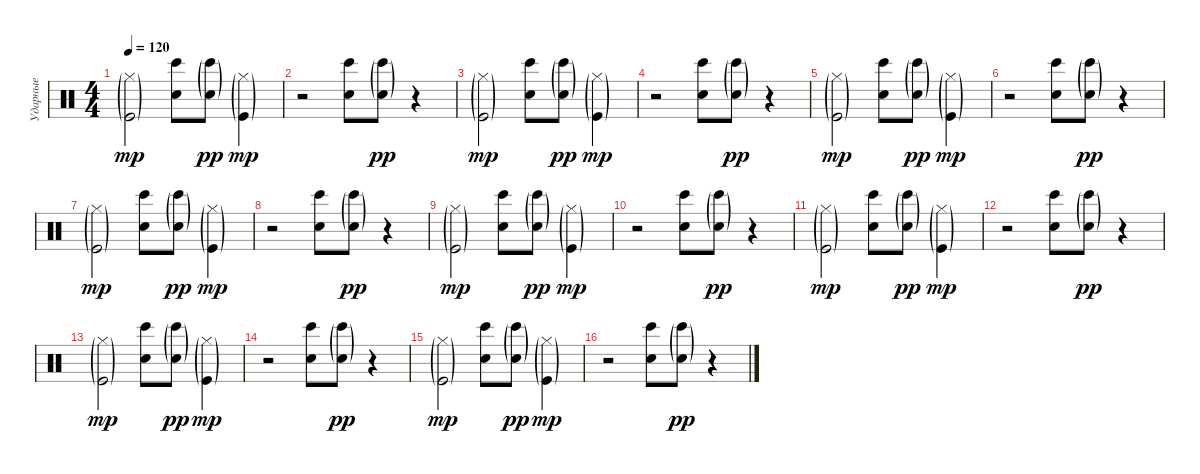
\track ("Ударные" "Ударные") {instrument percussion}
\staff {score}
\articulation defaults
\ts (4 4)
\tempo 120
\clef neutral
\ks c
("Kick (hit)"{g} "Hi-Hat (closed)"{g}).2{dy mp} ("Bongo High (hit)" "Hand Clap (hit)").8 ("Bongo High (hit)"{g} "Hand Clap (hit)"{g}).8{dy pp} ("Kick (hit)"{g} "Hi-Hat (closed)"{g}).4{dy mp} |
r.2 ("Bongo High (hit)" "Hand Clap (hit)").8 ("Bongo High (hit)"{g} "Hand Clap (hit)"{g}).8{dy pp} r.4 |
("Kick (hit)"{g} "Hi-Hat (closed)"{g}).2{dy mp} ("Bongo High (hit)" "Hand Clap (hit)").8 ("Bongo High (hit)"{g} "Hand Clap (hit)"{g}).8{dy pp} ("Kick (hit)"{g} "Hi-Hat (closed)"{g}).4{dy mp} |
r.2 ("Bongo High (hit)" "Hand Clap (hit)").8 ("Bongo High (hit)"{g} "Hand Clap (hit)"{g}).8{dy pp} r.4 |
("Kick (hit)"{g} "Hi-Hat (closed)"{g}).2{dy mp} ("Bongo High (hit)" "Hand Clap (hit)").8 ("Bongo High (hit)"{g} "Hand Clap (hit)"{g}).8{dy pp} ("Kick (hit)"{g} "Hi-Hat (closed)"{g}).4{dy mp} |
r.2 ("Bongo High (hit)" "Hand Clap (hit)").8 ("Bongo High (hit)"{g} "Hand Clap (hit)"{g}).8{dy pp} r.4 |
("Kick (hit)"{g} "Hi-Hat (closed)"{g}).2{dy mp} ("Bongo High (hit)" "Hand Clap (hit)").8 ("Bongo High (hit)"{g} "Hand Clap (hit)"{g}).8{dy pp} ("Kick (hit)"{g} "Hi-Hat (closed)"{g}).4{dy mp} |
r.2 ("Bongo High (hit)" "Hand Clap (hit)").8 ("Bongo High (hit)"{g} "Hand Clap (hit)"{g}).8{dy pp} r.4 |
("Kick (hit)"{g} "Hi-Hat (closed)"{g}).2{dy mp} ("Bongo High (hit)" "Hand Clap (hit)").8 ("Bongo High (hit)"{g} "Hand Clap (hit)"{g}).8{dy pp} ("Kick (hit)"{g} "Hi-Hat (closed)"{g}).4{dy mp} |
r.2 ("Bongo High (hit)" "Hand Clap (hit)").8 ("Bongo High (hit)"{g} "Hand Clap (hit)"{g}).8{dy pp} r.4 |
("Kick (hit)"{g} "Hi-Hat (closed)"{g}).2{dy mp} ("Bongo High (hit)" "Hand Clap (hit)").8 ("Bongo High (hit)"{g} "Hand Clap (hit)"{g}).8{dy pp} ("Kick (hit)"{g} "Hi-Hat (closed)"{g}).4{dy mp} |
r.2 ("Bongo High (hit)" "Hand Clap (hit)").8 ("Bongo High (hit)"{g} "Hand Clap (hit)"{g}).8{dy pp} r.4 |
("Kick (hit)"{g} "Hi-Hat (closed)"{g}).2{dy mp} ("Bongo High (hit)" "Hand Clap (hit)").8 ("Bongo High (hit)"{g} "Hand Clap (hit)"{g}).8{dy pp} ("Kick (hit)"{g} "Hi-Hat (closed)"{g}).4{dy mp} |
r.2 ("Bongo High (hit)" "Hand Clap (hit)").8 ("Bongo High (hit)"{g} "Hand Clap (hit)"{g}).8{dy pp} r.4 |
("Kick (hit)"{g} "Hi-Hat (closed)"{g}).2{dy mp} ("Bongo High (hit)" "Hand Clap (hit)").8 ("Bongo High (hit)"{g} "Hand Clap (hit)"{g}).8{dy pp} ("Kick (hit)"{g} "Hi-Hat (closed)"{g}).4{dy mp} |
r.2 ("Bongo High (hit)" "Hand Clap (hit)").8 ("Bongo High (hit)"{g} "Hand Clap (hit)"{g}).8{dy pp} r.4
